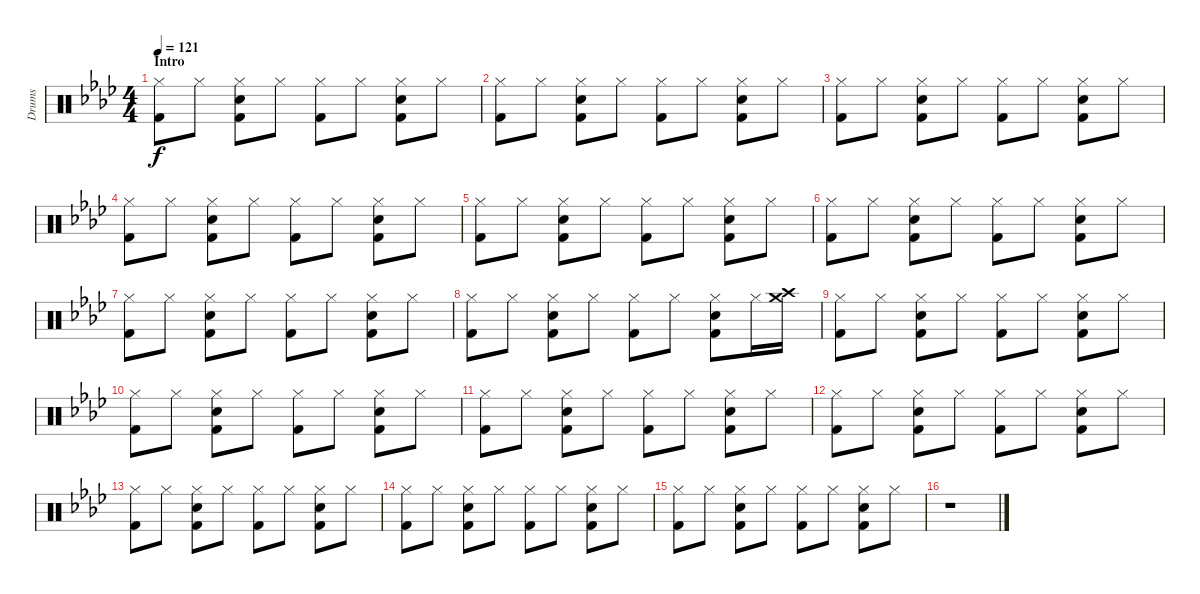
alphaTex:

\track ("Drums" "Drums") {instrument percussion}
\staff {score}
\articulation defaults
\ts (4 4)
\section ("" "Intro")
\tempo 121
\clef neutral
\ks ab
("Hi-Hat (closed)" "Kick (hit) 2").8{dy f} "Hi-Hat (closed)".8 ("Hi-Hat (closed)" "Snare (hit) 2" "Kick (hit) 2").8 "Hi-Hat (closed)".8 ("Hi-Hat (closed)" "Kick (hit) 2").8 "Hi-Hat (closed)".8 ("Hi-Hat (closed)" "Snare (hit) 2" "Kick (hit) 2").8 "Hi-Hat (closed)".8 |
("Hi-Hat (closed)" "Kick (hit) 2").8 "Hi-Hat (closed)".8 ("Hi-Hat (closed)" "Snare (hit) 2" "Kick (hit) 2").8 "Hi-Hat (closed)".8 ("Hi-Hat (closed)" "Kick (hit) 2").8 "Hi-Hat (closed)".8 ("Hi-Hat (closed)" "Snare (hit) 2" "Kick (hit) 2").8 "Hi-Hat (closed)".8 |
("Hi-Hat (closed)" "Kick (hit) 2").8 "Hi-Hat (closed)".8 ("Hi-Hat (closed)" "Snare (hit) 2" "Kick (hit) 2").8 "Hi-Hat (closed)".8 ("Hi-Hat (closed)" "Kick (hit) 2").8 "Hi-Hat (closed)".8 ("Hi-Hat (closed)" "Snare (hit) 2" "Kick (hit) 2").8 "Hi-Hat (closed)".8 |
("Hi-Hat (closed)" "Kick (hit) 2").8 "Hi-Hat (closed)".8 ("Hi-Hat (closed)" "Snare (hit) 2" "Kick (hit) 2").8 "Hi-Hat (closed)".8 ("Hi-Hat (closed)" "Kick (hit) 2").8 "Hi-Hat (closed)".8 ("Hi-Hat (closed)" "Snare (hit) 2" "Kick (hit) 2").8 "Hi-Hat (closed)".8 |
("Hi-Hat (closed)" "Kick (hit) 2").8 "Hi-Hat (closed)".8 ("Hi-Hat (closed)" "Snare (hit) 2" "Kick (hit) 2").8 "Hi-Hat (closed)".8 ("Hi-Hat (closed)" "Kick (hit) 2").8 "Hi-Hat (closed)".8 ("Hi-Hat (closed)" "Snare (hit) 2" "Kick (hit) 2").8 "Hi-Hat (closed)".8 |
("Hi-Hat (closed)" "Kick (hit) 2").8 "Hi-Hat (closed)".8 ("Hi-Hat (closed)" "Snare (hit) 2" "Kick (hit) 2").8 "Hi-Hat (closed)".8 ("Hi-Hat (closed)" "Kick (hit) 2").8 "Hi-Hat (closed)".8 ("Hi-Hat (closed)" "Snare (hit) 2" "Kick (hit) 2").8 "Hi-Hat (closed)".8 |
("Hi-Hat (closed)" "Kick (hit) 2").8 "Hi-Hat (closed)".8 ("Hi-Hat (closed)" "Snare (hit) 2" "Kick (hit) 2").8 "Hi-Hat (closed)".8 ("Hi-Hat (closed)" "Kick (hit) 2").8 "Hi-Hat (closed)".8 ("Hi-Hat (closed)" "Snare (hit) 2" "Kick (hit) 2").8 "Hi-Hat (closed)".8 |
("Hi-Hat (closed)" "Kick (hit) 2").8 "Hi-Hat (closed)".8 ("Hi-Hat (closed)" "Snare (hit) 2" "Kick (hit) 2").8 "Hi-Hat (closed)".8 ("Hi-Hat (closed)" "Kick (hit) 2").8 "Hi-Hat (closed)".8 ("Hi-Hat (closed)" "Snare (hit) 2" "Kick (hit) 2").8 "Hi-Hat (closed)".16 ("Crash high (hit)" "Crash medium (hit)").16 |
("Hi-Hat (closed)" "Kick (hit) 2").8 "Hi-Hat (closed)".8 ("Hi-Hat (closed)" "Snare (hit) 2" "Kick (hit) 2").8 "Hi-Hat (closed)".8 ("Hi-Hat (closed)" "Kick (hit) 2").8 "Hi-Hat (closed)".8 ("Hi-Hat (closed)" "Snare (hit) 2" "Kick (hit) 2").8 "Hi-Hat (closed)".8 |
("Hi-Hat (closed)" "Kick (hit) 2").8 "Hi-Hat (closed)".8 ("Hi-Hat (closed)" "Snare (hit) 2" "Kick (hit) 2").8 "Hi-Hat (closed)".8 ("Hi-Hat (closed)" "Kick (hit) 2").8 "Hi-Hat (closed)".8 ("Hi-Hat (closed)" "Snare (hit) 2" "Kick (hit) 2").8 "Hi-Hat (closed)".8 |
("Hi-Hat (closed)" "Kick (hit) 2").8 "Hi-Hat (closed)".8 ("Hi-Hat (closed)" "Snare (hit) 2" "Kick (hit) 2").8 "Hi-Hat (closed)".8 ("Hi-Hat (closed)" "Kick (hit) 2").8 "Hi-Hat (closed)".8 ("Hi-Hat (closed)" "Snare (hit) 2" "Kick (hit) 2").8 "Hi-Hat (closed)".8 |
("Hi-Hat (closed)" "Kick (hit) 2").8 "Hi-Hat (closed)".8 ("Hi-Hat (closed)" "Snare (hit) 2" "Kick (hit) 2").8 "Hi-Hat (closed)".8 ("Hi-Hat (closed)" "Kick (hit) 2").8 "Hi-Hat (closed)".8 ("Hi-Hat (closed)" "Snare (hit) 2" "Kick (hit) 2").8 "Hi-Hat (closed)".8 |
("Hi-Hat (closed)" "Kick (hit) 2").8 "Hi-Hat (closed)".8 ("Hi-Hat (closed)" "Snare (hit) 2" "Kick (hit) 2").8 "Hi-Hat (closed)".8 ("Hi-Hat (closed)" "Kick (hit) 2").8 "Hi-Hat (closed)".8 ("Hi-Hat (closed)" "Snare (hit) 2" "Kick (hit) 2").8 "Hi-Hat (closed)".8 |
("Hi-Hat (closed)" "Kick (hit) 2").8 "Hi-Hat (closed)".8 ("Hi-Hat (closed)" "Snare (hit) 2" "Kick (hit) 2").8 "Hi-Hat (closed)".8 ("Hi-Hat (closed)" "Kick (hit) 2").8 "Hi-Hat (closed)".8 ("Hi-Hat (closed)" "Snare (hit) 2" "Kick (hit) 2").8 "Hi-Hat (closed)".8 |
("Hi-Hat (closed)" "Kick (hit) 2").8 "Hi-Hat (closed)".8 ("Hi-Hat (closed)" "Snare (hit) 2" "Kick (hit) 2").8 "Hi-Hat (closed)".8 ("Hi-Hat (closed)" "Kick (hit) 2").8 "Hi-Hat (closed)".8 ("Hi-Hat (closed)" "Snare (hit) 2" "Kick (hit) 2").8 "Hi-Hat (closed)".8 |
r.1
